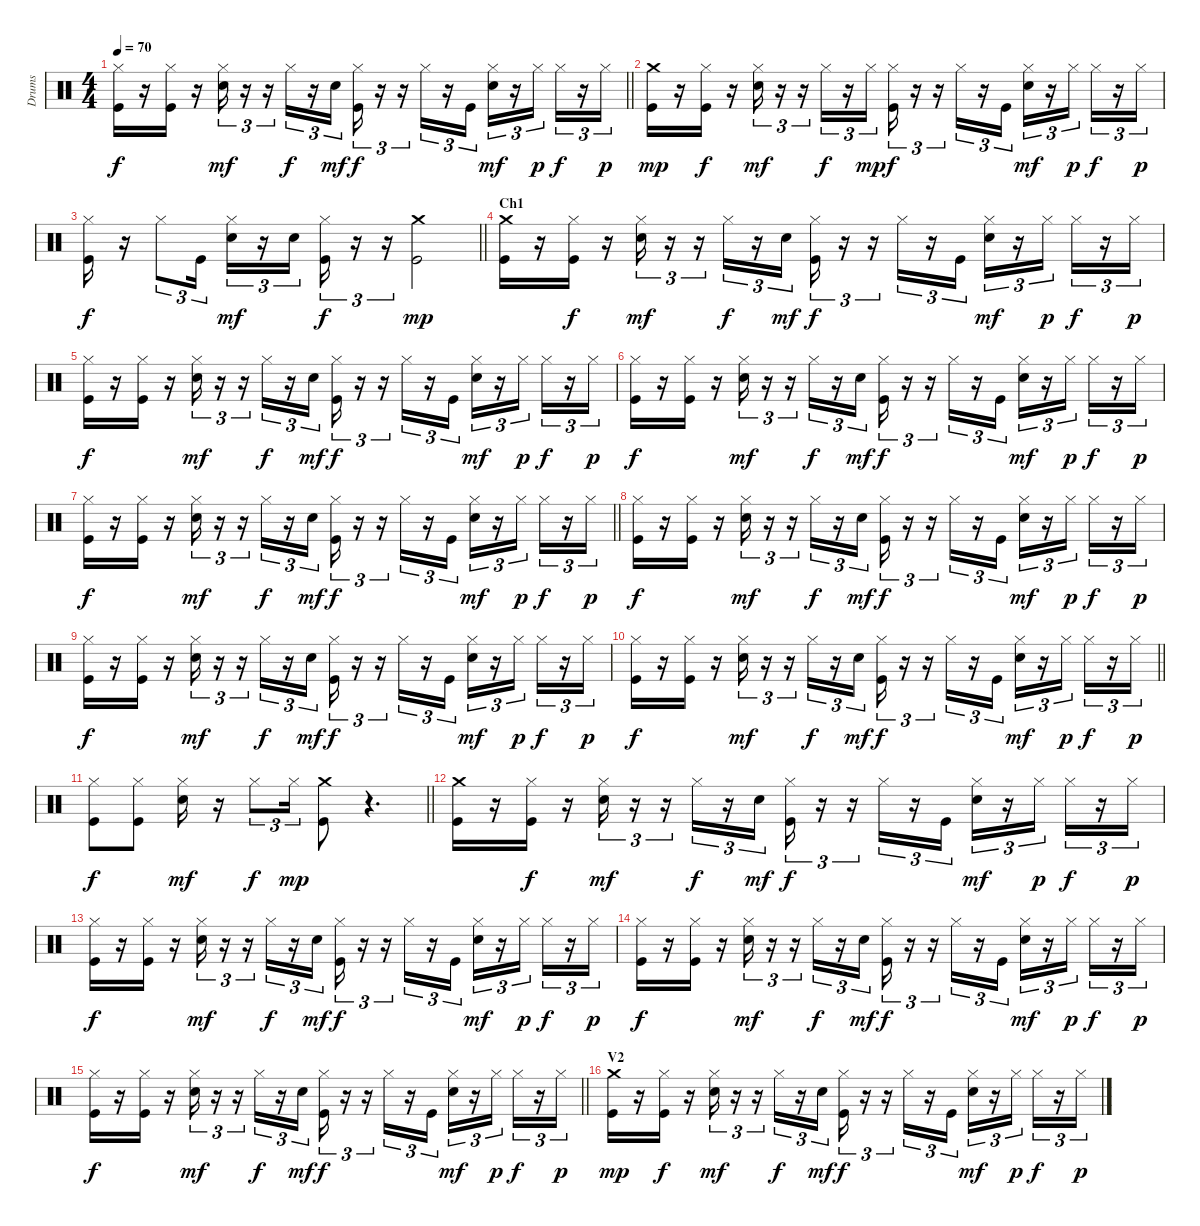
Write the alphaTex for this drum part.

\track ("Drums" "Drums") {instrument percussion}
\staff {score}
\articulation defaults
\ts (4 4)
\tempo 70
\clef neutral
\barLineRight lightlight
\ks c
("Kick (hit)" "Hi-Hat (closed)").16{dy f} r.16 ("Kick (hit)" "Hi-Hat (closed)").16 r.16 ("Electric Snare (hit)" "Hi-Hat (closed)").16{tu (3 2) dy mf} r.16{tu (3 2)} r.16{tu (3 2)} "Hi-Hat (closed)".16{tu (3 2) dy f} r.16{tu (3 2)} "Electric Snare (hit)".16{tu (3 2) dy mf} ("Kick (hit)" "Hi-Hat (closed)").16{tu (3 2) dy f} r.16{tu (3 2)} r.16{tu (3 2)} "Hi-Hat (closed)".16{tu (3 2)} r.16{tu (3 2)} "Kick (hit)".16{tu (3 2)} ("Electric Snare (hit)" "Hi-Hat (closed)").16{tu (3 2) dy mf} r.16{tu (3 2)} "Hi-Hat (closed)".16{tu (3 2) dy p} "Hi-Hat (closed)".16{tu (3 2) dy f} r.16{tu (3 2)} "Hi-Hat (closed)".16{tu (3 2) dy p} |
\section ("" "")
("Kick (hit)" "Crash medium (hit)").16{dy mp} r.16 ("Kick (hit)" "Hi-Hat (closed)").16{dy f} r.16 ("Electric Snare (hit)" "Hi-Hat (closed)").16{tu (3 2) dy mf} r.16{tu (3 2)} r.16{tu (3 2)} "Hi-Hat (closed)".16{tu (3 2) dy f} r.16{tu (3 2)} "Hi-Hat (closed)".16{tu (3 2) dy mp} ("Kick (hit)" "Hi-Hat (closed)").16{tu (3 2) dy f} r.16{tu (3 2)} r.16{tu (3 2)} "Hi-Hat (closed)".16{tu (3 2)} r.16{tu (3 2)} "Kick (hit)".16{tu (3 2)} ("Electric Snare (hit)" "Hi-Hat (closed)").16{tu (3 2) dy mf} r.16{tu (3 2)} "Hi-Hat (closed)".16{tu (3 2) dy p} "Hi-Hat (closed)".16{tu (3 2) dy f} r.16{tu (3 2)} "Hi-Hat (closed)".16{tu (3 2) dy p} |
\barLineRight lightlight
("Kick (hit)" "Hi-Hat (closed)").16{dy f} r.16 "Hi-Hat (closed)".8{tu (3 2)} "Kick (hit)".16{tu (3 2)} ("Electric Snare (hit)" "Hi-Hat (closed)").16{tu (3 2) dy mf} r.16{tu (3 2)} "Electric Snare (hit)".16{tu (3 2)} ("Kick (hit)" "Hi-Hat (closed)").16{tu (3 2) dy f} r.16{tu (3 2)} r.16{tu (3 2)} ("Kick (hit)" "Crash medium (hit)").2{dy mp} |
\section ("" "Ch1")
("Kick (hit)" "Crash medium (hit)").16 r.16 ("Kick (hit)" "Hi-Hat (closed)").16{dy f} r.16 ("Electric Snare (hit)" "Hi-Hat (closed)").16{tu (3 2) dy mf} r.16{tu (3 2)} r.16{tu (3 2)} "Hi-Hat (closed)".16{tu (3 2) dy f} r.16{tu (3 2)} "Electric Snare (hit)".16{tu (3 2) dy mf} ("Kick (hit)" "Hi-Hat (closed)").16{tu (3 2) dy f} r.16{tu (3 2)} r.16{tu (3 2)} "Hi-Hat (closed)".16{tu (3 2)} r.16{tu (3 2)} "Kick (hit)".16{tu (3 2)} ("Electric Snare (hit)" "Hi-Hat (closed)").16{tu (3 2) dy mf} r.16{tu (3 2)} "Hi-Hat (closed)".16{tu (3 2) dy p} "Hi-Hat (closed)".16{tu (3 2) dy f} r.16{tu (3 2)} "Hi-Hat (closed)".16{tu (3 2) dy p} |
("Kick (hit)" "Hi-Hat (closed)").16{dy f} r.16 ("Kick (hit)" "Hi-Hat (closed)").16 r.16 ("Electric Snare (hit)" "Hi-Hat (closed)").16{tu (3 2) dy mf} r.16{tu (3 2)} r.16{tu (3 2)} "Hi-Hat (closed)".16{tu (3 2) dy f} r.16{tu (3 2)} "Electric Snare (hit)".16{tu (3 2) dy mf} ("Kick (hit)" "Hi-Hat (closed)").16{tu (3 2) dy f} r.16{tu (3 2)} r.16{tu (3 2)} "Hi-Hat (closed)".16{tu (3 2)} r.16{tu (3 2)} "Kick (hit)".16{tu (3 2)} ("Electric Snare (hit)" "Hi-Hat (closed)").16{tu (3 2) dy mf} r.16{tu (3 2)} "Hi-Hat (closed)".16{tu (3 2) dy p} "Hi-Hat (closed)".16{tu (3 2) dy f} r.16{tu (3 2)} "Hi-Hat (closed)".16{tu (3 2) dy p} |
("Kick (hit)" "Hi-Hat (closed)").16{dy f} r.16 ("Kick (hit)" "Hi-Hat (closed)").16 r.16 ("Electric Snare (hit)" "Hi-Hat (closed)").16{tu (3 2) dy mf} r.16{tu (3 2)} r.16{tu (3 2)} "Hi-Hat (closed)".16{tu (3 2) dy f} r.16{tu (3 2)} "Electric Snare (hit)".16{tu (3 2) dy mf} ("Kick (hit)" "Hi-Hat (closed)").16{tu (3 2) dy f} r.16{tu (3 2)} r.16{tu (3 2)} "Hi-Hat (closed)".16{tu (3 2)} r.16{tu (3 2)} "Kick (hit)".16{tu (3 2)} ("Electric Snare (hit)" "Hi-Hat (closed)").16{tu (3 2) dy mf} r.16{tu (3 2)} "Hi-Hat (closed)".16{tu (3 2) dy p} "Hi-Hat (closed)".16{tu (3 2) dy f} r.16{tu (3 2)} "Hi-Hat (closed)".16{tu (3 2) dy p} |
\barLineRight lightlight
("Kick (hit)" "Hi-Hat (closed)").16{dy f} r.16 ("Kick (hit)" "Hi-Hat (closed)").16 r.16 ("Electric Snare (hit)" "Hi-Hat (closed)").16{tu (3 2) dy mf} r.16{tu (3 2)} r.16{tu (3 2)} "Hi-Hat (closed)".16{tu (3 2) dy f} r.16{tu (3 2)} "Electric Snare (hit)".16{tu (3 2) dy mf} ("Kick (hit)" "Hi-Hat (closed)").16{tu (3 2) dy f} r.16{tu (3 2)} r.16{tu (3 2)} "Hi-Hat (closed)".16{tu (3 2)} r.16{tu (3 2)} "Kick (hit)".16{tu (3 2)} ("Electric Snare (hit)" "Hi-Hat (closed)").16{tu (3 2) dy mf} r.16{tu (3 2)} "Hi-Hat (closed)".16{tu (3 2) dy p} "Hi-Hat (closed)".16{tu (3 2) dy f} r.16{tu (3 2)} "Hi-Hat (closed)".16{tu (3 2) dy p} |
("Kick (hit)" "Hi-Hat (closed)").16{dy f} r.16 ("Kick (hit)" "Hi-Hat (closed)").16 r.16 ("Electric Snare (hit)" "Hi-Hat (closed)").16{tu (3 2) dy mf} r.16{tu (3 2)} r.16{tu (3 2)} "Hi-Hat (closed)".16{tu (3 2) dy f} r.16{tu (3 2)} "Electric Snare (hit)".16{tu (3 2) dy mf} ("Kick (hit)" "Hi-Hat (closed)").16{tu (3 2) dy f} r.16{tu (3 2)} r.16{tu (3 2)} "Hi-Hat (closed)".16{tu (3 2)} r.16{tu (3 2)} "Kick (hit)".16{tu (3 2)} ("Electric Snare (hit)" "Hi-Hat (closed)").16{tu (3 2) dy mf} r.16{tu (3 2)} "Hi-Hat (closed)".16{tu (3 2) dy p} "Hi-Hat (closed)".16{tu (3 2) dy f} r.16{tu (3 2)} "Hi-Hat (closed)".16{tu (3 2) dy p} |
("Kick (hit)" "Hi-Hat (closed)").16{dy f} r.16 ("Kick (hit)" "Hi-Hat (closed)").16 r.16 ("Electric Snare (hit)" "Hi-Hat (closed)").16{tu (3 2) dy mf} r.16{tu (3 2)} r.16{tu (3 2)} "Hi-Hat (closed)".16{tu (3 2) dy f} r.16{tu (3 2)} "Electric Snare (hit)".16{tu (3 2) dy mf} ("Kick (hit)" "Hi-Hat (closed)").16{tu (3 2) dy f} r.16{tu (3 2)} r.16{tu (3 2)} "Hi-Hat (closed)".16{tu (3 2)} r.16{tu (3 2)} "Kick (hit)".16{tu (3 2)} ("Electric Snare (hit)" "Hi-Hat (closed)").16{tu (3 2) dy mf} r.16{tu (3 2)} "Hi-Hat (closed)".16{tu (3 2) dy p} "Hi-Hat (closed)".16{tu (3 2) dy f} r.16{tu (3 2)} "Hi-Hat (closed)".16{tu (3 2) dy p} |
\barLineRight lightlight
("Kick (hit)" "Hi-Hat (closed)").16{dy f} r.16 ("Kick (hit)" "Hi-Hat (closed)").16 r.16 ("Electric Snare (hit)" "Hi-Hat (closed)").16{tu (3 2) dy mf} r.16{tu (3 2)} r.16{tu (3 2)} "Hi-Hat (closed)".16{tu (3 2) dy f} r.16{tu (3 2)} "Electric Snare (hit)".16{tu (3 2) dy mf} ("Kick (hit)" "Hi-Hat (closed)").16{tu (3 2) dy f} r.16{tu (3 2)} r.16{tu (3 2)} "Hi-Hat (closed)".16{tu (3 2)} r.16{tu (3 2)} "Kick (hit)".16{tu (3 2)} ("Electric Snare (hit)" "Hi-Hat (closed)").16{tu (3 2) dy mf} r.16{tu (3 2)} "Hi-Hat (closed)".16{tu (3 2) dy p} "Hi-Hat (closed)".16{tu (3 2) dy f} r.16{tu (3 2)} "Hi-Hat (closed)".16{tu (3 2) dy p} |
\section ("" "")
\barLineRight lightlight
("Kick (hit)" "Hi-Hat (closed)").8{dy f} ("Kick (hit)" "Hi-Hat (closed)").8 ("Electric Snare (hit)" "Hi-Hat (closed)").16{dy mf} r.16 "Hi-Hat (closed)".8{tu (3 2) dy f} "Hi-Hat (closed)".16{tu (3 2) dy mp} ("Kick (hit)" "Crash medium (hit)").8 r.4{d} |
\section ("" "")
("Kick (hit)" "Crash medium (hit)").16 r.16 ("Kick (hit)" "Hi-Hat (closed)").16{dy f} r.16 ("Electric Snare (hit)" "Hi-Hat (closed)").16{tu (3 2) dy mf} r.16{tu (3 2)} r.16{tu (3 2)} "Hi-Hat (closed)".16{tu (3 2) dy f} r.16{tu (3 2)} "Electric Snare (hit)".16{tu (3 2) dy mf} ("Kick (hit)" "Hi-Hat (closed)").16{tu (3 2) dy f} r.16{tu (3 2)} r.16{tu (3 2)} "Hi-Hat (closed)".16{tu (3 2)} r.16{tu (3 2)} "Kick (hit)".16{tu (3 2)} ("Electric Snare (hit)" "Hi-Hat (closed)").16{tu (3 2) dy mf} r.16{tu (3 2)} "Hi-Hat (closed)".16{tu (3 2) dy p} "Hi-Hat (closed)".16{tu (3 2) dy f} r.16{tu (3 2)} "Hi-Hat (closed)".16{tu (3 2) dy p} |
("Kick (hit)" "Hi-Hat (closed)").16{dy f} r.16 ("Kick (hit)" "Hi-Hat (closed)").16 r.16 ("Electric Snare (hit)" "Hi-Hat (closed)").16{tu (3 2) dy mf} r.16{tu (3 2)} r.16{tu (3 2)} "Hi-Hat (closed)".16{tu (3 2) dy f} r.16{tu (3 2)} "Electric Snare (hit)".16{tu (3 2) dy mf} ("Kick (hit)" "Hi-Hat (closed)").16{tu (3 2) dy f} r.16{tu (3 2)} r.16{tu (3 2)} "Hi-Hat (closed)".16{tu (3 2)} r.16{tu (3 2)} "Kick (hit)".16{tu (3 2)} ("Electric Snare (hit)" "Hi-Hat (closed)").16{tu (3 2) dy mf} r.16{tu (3 2)} "Hi-Hat (closed)".16{tu (3 2) dy p} "Hi-Hat (closed)".16{tu (3 2) dy f} r.16{tu (3 2)} "Hi-Hat (closed)".16{tu (3 2) dy p} |
("Kick (hit)" "Hi-Hat (closed)").16{dy f} r.16 ("Kick (hit)" "Hi-Hat (closed)").16 r.16 ("Electric Snare (hit)" "Hi-Hat (closed)").16{tu (3 2) dy mf} r.16{tu (3 2)} r.16{tu (3 2)} "Hi-Hat (closed)".16{tu (3 2) dy f} r.16{tu (3 2)} "Electric Snare (hit)".16{tu (3 2) dy mf} ("Kick (hit)" "Hi-Hat (closed)").16{tu (3 2) dy f} r.16{tu (3 2)} r.16{tu (3 2)} "Hi-Hat (closed)".16{tu (3 2)} r.16{tu (3 2)} "Kick (hit)".16{tu (3 2)} ("Electric Snare (hit)" "Hi-Hat (closed)").16{tu (3 2) dy mf} r.16{tu (3 2)} "Hi-Hat (closed)".16{tu (3 2) dy p} "Hi-Hat (closed)".16{tu (3 2) dy f} r.16{tu (3 2)} "Hi-Hat (closed)".16{tu (3 2) dy p} |
\barLineRight lightlight
("Kick (hit)" "Hi-Hat (closed)").16{dy f} r.16 ("Kick (hit)" "Hi-Hat (closed)").16 r.16 ("Electric Snare (hit)" "Hi-Hat (closed)").16{tu (3 2) dy mf} r.16{tu (3 2)} r.16{tu (3 2)} "Hi-Hat (closed)".16{tu (3 2) dy f} r.16{tu (3 2)} "Electric Snare (hit)".16{tu (3 2) dy mf} ("Kick (hit)" "Hi-Hat (closed)").16{tu (3 2) dy f} r.16{tu (3 2)} r.16{tu (3 2)} "Hi-Hat (closed)".16{tu (3 2)} r.16{tu (3 2)} "Kick (hit)".16{tu (3 2)} ("Electric Snare (hit)" "Hi-Hat (closed)").16{tu (3 2) dy mf} r.16{tu (3 2)} "Hi-Hat (closed)".16{tu (3 2) dy p} "Hi-Hat (closed)".16{tu (3 2) dy f} r.16{tu (3 2)} "Hi-Hat (closed)".16{tu (3 2) dy p} |
\section ("" "V2")
("Kick (hit)" "Crash medium (hit)").16{dy mp} r.16 ("Kick (hit)" "Hi-Hat (closed)").16{dy f} r.16 ("Electric Snare (hit)" "Hi-Hat (closed)").16{tu (3 2) dy mf} r.16{tu (3 2)} r.16{tu (3 2)} "Hi-Hat (closed)".16{tu (3 2) dy f} r.16{tu (3 2)} "Electric Snare (hit)".16{tu (3 2) dy mf} ("Kick (hit)" "Hi-Hat (closed)").16{tu (3 2) dy f} r.16{tu (3 2)} r.16{tu (3 2)} "Hi-Hat (closed)".16{tu (3 2)} r.16{tu (3 2)} "Kick (hit)".16{tu (3 2)} ("Electric Snare (hit)" "Hi-Hat (closed)").16{tu (3 2) dy mf} r.16{tu (3 2)} "Hi-Hat (closed)".16{tu (3 2) dy p} "Hi-Hat (closed)".16{tu (3 2) dy f} r.16{tu (3 2)} "Hi-Hat (closed)".16{tu (3 2) dy p}
